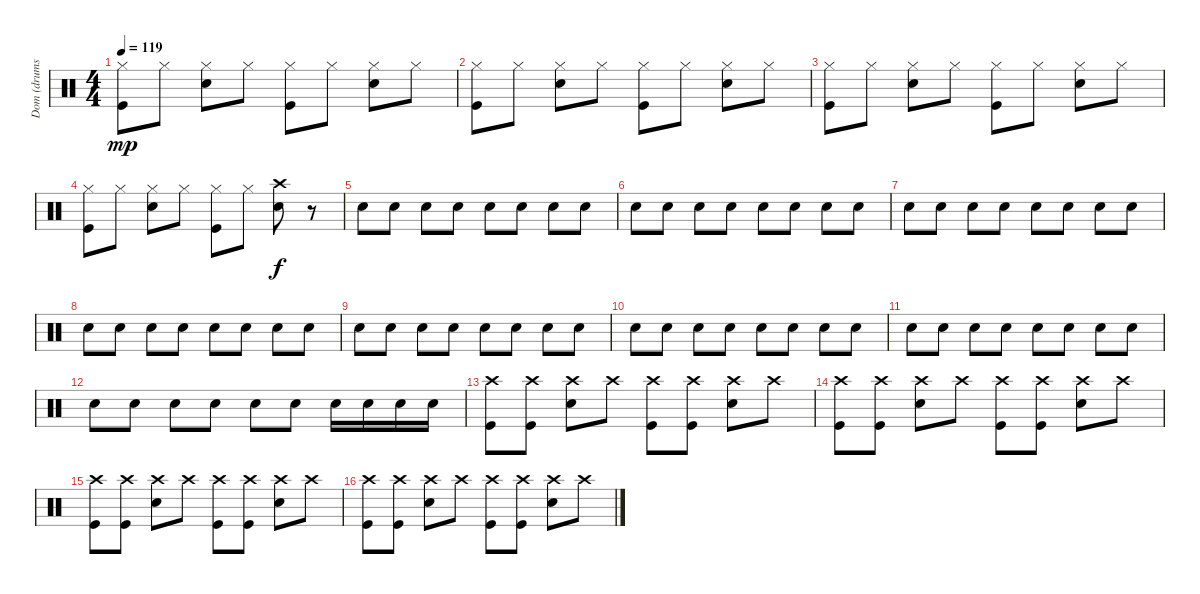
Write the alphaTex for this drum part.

\track ("Dom (drums)" "Dom (drums") {instrument percussion}
\staff {score}
\articulation defaults
\ts (4 4)
\tempo 119
\clef neutral
\ks c
("Hi-Hat (closed)" "Kick (hit)").8{dy mp} "Hi-Hat (closed)".8 ("Hi-Hat (closed)" "Snare (hit) 2").8 "Hi-Hat (closed)".8 ("Hi-Hat (closed)" "Kick (hit)").8 "Hi-Hat (closed)".8 ("Hi-Hat (closed)" "Snare (hit) 2").8 "Hi-Hat (closed)".8 |
("Hi-Hat (closed)" "Kick (hit)").8 "Hi-Hat (closed)".8 ("Hi-Hat (closed)" "Snare (hit) 2").8 "Hi-Hat (closed)".8 ("Hi-Hat (closed)" "Kick (hit)").8 "Hi-Hat (closed)".8 ("Hi-Hat (closed)" "Snare (hit) 2").8 "Hi-Hat (closed)".8 |
("Hi-Hat (closed)" "Kick (hit)").8 "Hi-Hat (closed)".8 ("Hi-Hat (closed)" "Snare (hit) 2").8 "Hi-Hat (closed)".8 ("Hi-Hat (closed)" "Kick (hit)").8 "Hi-Hat (closed)".8 ("Hi-Hat (closed)" "Snare (hit) 2").8 "Hi-Hat (closed)".8 |
("Hi-Hat (closed)" "Kick (hit)").8 "Hi-Hat (closed)".8 ("Hi-Hat (closed)" "Snare (hit) 2").8 "Hi-Hat (closed)".8 ("Hi-Hat (closed)" "Kick (hit)").8 "Hi-Hat (closed)".8 ("Crash high (hit)" "Snare (hit) 2").8{dy f} r.8 |
"Snare (hit) 2".8 "Snare (hit) 2".8 "Snare (hit) 2".8 "Snare (hit) 2".8 "Snare (hit) 2".8 "Snare (hit) 2".8 "Snare (hit) 2".8 "Snare (hit) 2".8 |
"Snare (hit) 2".8 "Snare (hit) 2".8 "Snare (hit) 2".8 "Snare (hit) 2".8 "Snare (hit) 2".8 "Snare (hit) 2".8 "Snare (hit) 2".8 "Snare (hit) 2".8 |
"Snare (hit) 2".8 "Snare (hit) 2".8 "Snare (hit) 2".8 "Snare (hit) 2".8 "Snare (hit) 2".8 "Snare (hit) 2".8 "Snare (hit) 2".8 "Snare (hit) 2".8 |
"Snare (hit) 2".8 "Snare (hit) 2".8 "Snare (hit) 2".8 "Snare (hit) 2".8 "Snare (hit) 2".8 "Snare (hit) 2".8 "Snare (hit) 2".8 "Snare (hit) 2".8 |
"Snare (hit) 2".8 "Snare (hit) 2".8 "Snare (hit) 2".8 "Snare (hit) 2".8 "Snare (hit) 2".8 "Snare (hit) 2".8 "Snare (hit) 2".8 "Snare (hit) 2".8 |
"Snare (hit) 2".8 "Snare (hit) 2".8 "Snare (hit) 2".8 "Snare (hit) 2".8 "Snare (hit) 2".8 "Snare (hit) 2".8 "Snare (hit) 2".8 "Snare (hit) 2".8 |
"Snare (hit) 2".8 "Snare (hit) 2".8 "Snare (hit) 2".8 "Snare (hit) 2".8 "Snare (hit) 2".8 "Snare (hit) 2".8 "Snare (hit) 2".8 "Snare (hit) 2".8 |
"Snare (hit) 2".8 "Snare (hit) 2".8 "Snare (hit) 2".8 "Snare (hit) 2".8 "Snare (hit) 2".8 "Snare (hit) 2".8 "Snare (hit) 2".16 "Snare (hit) 2".16 "Snare (hit) 2".16 "Snare (hit) 2".16 |
("Crash high (hit)" "Kick (hit)").8 ("Crash high (hit)" "Kick (hit)").8 ("Crash high (hit)" "Snare (hit) 2").8 "Crash high (hit)".8 ("Crash high (hit)" "Kick (hit)").8 ("Crash high (hit)" "Kick (hit)").8 ("Crash high (hit)" "Snare (hit) 2").8 "Crash high (hit)".8 |
("Crash high (hit)" "Kick (hit)").8 ("Crash high (hit)" "Kick (hit)").8 ("Crash high (hit)" "Snare (hit) 2").8 "Crash high (hit)".8 ("Crash high (hit)" "Kick (hit)").8 ("Crash high (hit)" "Kick (hit)").8 ("Crash high (hit)" "Snare (hit) 2").8 "Crash high (hit)".8 |
("Crash high (hit)" "Kick (hit)").8 ("Crash high (hit)" "Kick (hit)").8 ("Crash high (hit)" "Snare (hit) 2").8 "Crash high (hit)".8 ("Crash high (hit)" "Kick (hit)").8 ("Crash high (hit)" "Kick (hit)").8 ("Crash high (hit)" "Snare (hit) 2").8 "Crash high (hit)".8 |
("Crash high (hit)" "Kick (hit)").8 ("Crash high (hit)" "Kick (hit)").8 ("Crash high (hit)" "Snare (hit) 2").8 "Crash high (hit)".8 ("Crash high (hit)" "Kick (hit)").8 ("Crash high (hit)" "Kick (hit)").8 ("Crash high (hit)" "Snare (hit) 2").8 "Crash high (hit)".8
